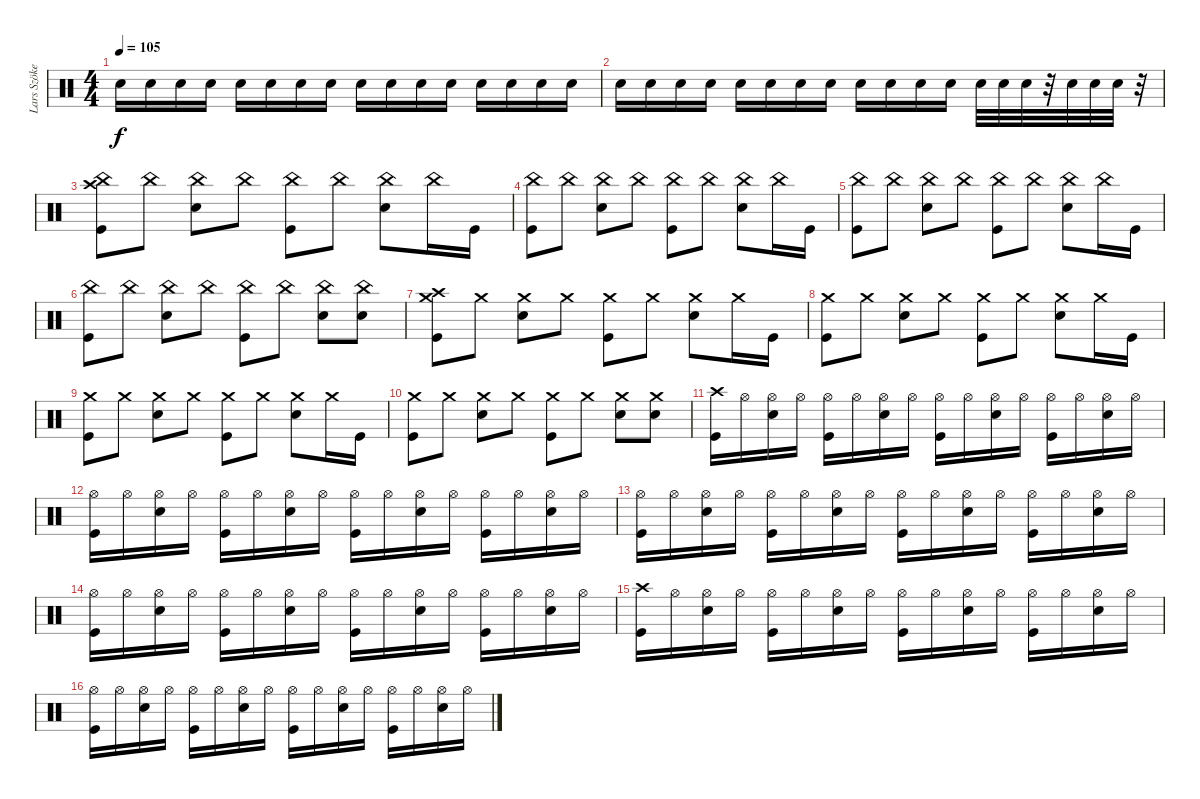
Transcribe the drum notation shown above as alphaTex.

\track ("Lars Szöke" "Lars Szöke") {instrument percussion}
\staff {score}
\articulation defaults
\ts (4 4)
\tempo 105
\clef neutral
\ks c "Snare (hit) 2".16{dy f} "Snare (hit) 2".16 "Snare (hit) 2".16 "Snare (hit) 2".16 "Snare (hit) 2".16 "Snare (hit) 2".16 "Snare (hit) 2".16 "Snare (hit) 2".16 "Snare (hit) 2".16 "Snare (hit) 2".16 "Snare (hit) 2".16 "Snare (hit) 2".16 "Snare (hit) 2".16 "Snare (hit) 2".16 "Snare (hit) 2".16 "Snare (hit) 2".16
|
"Snare (hit) 2".16 "Snare (hit) 2".16 "Snare (hit) 2".16 "Snare (hit) 2".16 "Snare (hit) 2".16 "Snare (hit) 2".16 "Snare (hit) 2".16 "Snare (hit) 2".16 "Snare (hit) 2".16 "Snare (hit) 2".16 "Snare (hit) 2".16 "Snare (hit) 2".16 "Snare (hit) 2".32 "Snare (hit) 2".32 "Snare (hit) 2".32 r.32 "Snare (hit) 2".32 "Snare (hit) 2".32 "Snare (hit) 2".32 r.32 |
("China (hit)" "Crash high (hit)" "Kick (hit)").8 "China (hit)".8 ("China (hit)" "Snare (hit) 2").8 "China (hit)".8 ("China (hit)" "Kick (hit)").8 "China (hit)".8 ("China (hit)" "Snare (hit) 2").8 "China (hit)".16 "Kick (hit)".16 |
("China (hit)" "Kick (hit)").8 "China (hit)".8 ("China (hit)" "Snare (hit) 2").8 "China (hit)".8 ("China (hit)" "Kick (hit)").8 "China (hit)".8 ("China (hit)" "Snare (hit) 2").8 "China (hit)".16 "Kick (hit)".16 |
("China (hit)" "Kick (hit)").8 "China (hit)".8 ("China (hit)" "Snare (hit) 2").8 "China (hit)".8 ("China (hit)" "Kick (hit)").8 "China (hit)".8 ("China (hit)" "Snare (hit) 2").8 "China (hit)".16 "Kick (hit)".16 |
("China (hit)" "Kick (hit)").8 "China (hit)".8 ("China (hit)" "Snare (hit) 2").8 "China (hit)".8 ("China (hit)" "Kick (hit)").8 "China (hit)".8 ("China (hit)" "Snare (hit) 2").8 ("China (hit)" "Snare (hit) 2").8 |
("Crash medium (hit)" "Crash high (hit)" "Kick (hit)").8 "Crash medium (hit)".8 ("Crash medium (hit)" "Snare (hit) 2").8 "Crash medium (hit)".8 ("Crash medium (hit)" "Kick (hit)").8 "Crash medium (hit)".8 ("Crash medium (hit)" "Snare (hit) 2").8 "Crash medium (hit)".16 "Kick (hit)".16 |
("Crash medium (hit)" "Kick (hit)").8 "Crash medium (hit)".8 ("Crash medium (hit)" "Snare (hit) 2").8 "Crash medium (hit)".8 ("Crash medium (hit)" "Kick (hit)").8 "Crash medium (hit)".8 ("Crash medium (hit)" "Snare (hit) 2").8 "Crash medium (hit)".16 "Kick (hit)".16 |
("Crash medium (hit)" "Kick (hit)").8 "Crash medium (hit)".8 ("Crash medium (hit)" "Snare (hit) 2").8 "Crash medium (hit)".8 ("Crash medium (hit)" "Kick (hit)").8 "Crash medium (hit)".8 ("Crash medium (hit)" "Snare (hit) 2").8 "Crash medium (hit)".16 "Kick (hit)".16 |
("Crash medium (hit)" "Kick (hit)").8 "Crash medium (hit)".8 ("Crash medium (hit)" "Snare (hit) 2").8 "Crash medium (hit)".8 ("Crash medium (hit)" "Kick (hit)").8 "Crash medium (hit)".8 ("Crash medium (hit)" "Snare (hit) 2").8 ("Crash medium (hit)" "Snare (hit) 2").8 |
("Crash high (hit)" "Kick (hit)").16 "Hi-Hat (open)".16 ("Hi-Hat (open)" "Snare (hit) 2").16 "Hi-Hat (open)".16 ("Hi-Hat (open)" "Kick (hit)").16 "Hi-Hat (open)".16 ("Hi-Hat (open)" "Snare (hit) 2").16 "Hi-Hat (open)".16 ("Hi-Hat (open)" "Kick (hit)").16 "Hi-Hat (open)".16 ("Hi-Hat (open)" "Snare (hit) 2").16 "Hi-Hat (open)".16 ("Hi-Hat (open)" "Kick (hit)").16 "Hi-Hat (open)".16 ("Hi-Hat (open)" "Snare (hit) 2").16 "Hi-Hat (open)".16 |
("Hi-Hat (open)" "Kick (hit)").16 "Hi-Hat (open)".16 ("Hi-Hat (open)" "Snare (hit) 2").16 "Hi-Hat (open)".16 ("Hi-Hat (open)" "Kick (hit)").16 "Hi-Hat (open)".16 ("Hi-Hat (open)" "Snare (hit) 2").16 "Hi-Hat (open)".16 ("Hi-Hat (open)" "Kick (hit)").16 "Hi-Hat (open)".16 ("Hi-Hat (open)" "Snare (hit) 2").16 "Hi-Hat (open)".16 ("Hi-Hat (open)" "Kick (hit)").16 "Hi-Hat (open)".16 ("Hi-Hat (open)" "Snare (hit) 2").16 "Hi-Hat (open)".16 |
("Hi-Hat (open)" "Kick (hit)").16 "Hi-Hat (open)".16 ("Hi-Hat (open)" "Snare (hit) 2").16 "Hi-Hat (open)".16 ("Hi-Hat (open)" "Kick (hit)").16 "Hi-Hat (open)".16 ("Hi-Hat (open)" "Snare (hit) 2").16 "Hi-Hat (open)".16 ("Hi-Hat (open)" "Kick (hit)").16 "Hi-Hat (open)".16 ("Hi-Hat (open)" "Snare (hit) 2").16 "Hi-Hat (open)".16 ("Hi-Hat (open)" "Kick (hit)").16 "Hi-Hat (open)".16 ("Hi-Hat (open)" "Snare (hit) 2").16 "Hi-Hat (open)".16 |
("Hi-Hat (open)" "Kick (hit)").16 "Hi-Hat (open)".16 ("Hi-Hat (open)" "Snare (hit) 2").16 "Hi-Hat (open)".16 ("Hi-Hat (open)" "Kick (hit)").16 "Hi-Hat (open)".16 ("Hi-Hat (open)" "Snare (hit) 2").16 "Hi-Hat (open)".16 ("Hi-Hat (open)" "Kick (hit)").16 "Hi-Hat (open)".16 ("Hi-Hat (open)" "Snare (hit) 2").16 "Hi-Hat (open)".16 ("Hi-Hat (open)" "Kick (hit)").16 "Hi-Hat (open)".16 ("Hi-Hat (open)" "Snare (hit) 2").16 "Hi-Hat (open)".16 |
("Crash high (hit)" "Kick (hit)").16 "Hi-Hat (open)".16 ("Hi-Hat (open)" "Snare (hit) 2").16 "Hi-Hat (open)".16 ("Hi-Hat (open)" "Kick (hit)").16 "Hi-Hat (open)".16 ("Hi-Hat (open)" "Snare (hit) 2").16 "Hi-Hat (open)".16 ("Hi-Hat (open)" "Kick (hit)").16 "Hi-Hat (open)".16 ("Hi-Hat (open)" "Snare (hit) 2").16 "Hi-Hat (open)".16 ("Hi-Hat (open)" "Kick (hit)").16 "Hi-Hat (open)".16 ("Hi-Hat (open)" "Snare (hit) 2").16 "Hi-Hat (open)".16 |
("Hi-Hat (open)" "Kick (hit)").16 "Hi-Hat (open)".16 ("Hi-Hat (open)" "Snare (hit) 2").16 "Hi-Hat (open)".16 ("Hi-Hat (open)" "Kick (hit)").16 "Hi-Hat (open)".16 ("Hi-Hat (open)" "Snare (hit) 2").16 "Hi-Hat (open)".16 ("Hi-Hat (open)" "Kick (hit)").16 "Hi-Hat (open)".16 ("Hi-Hat (open)" "Snare (hit) 2").16 "Hi-Hat (open)".16 ("Hi-Hat (open)" "Kick (hit)").16 "Hi-Hat (open)".16 ("Hi-Hat (open)" "Snare (hit) 2").16 "Hi-Hat (open)".16
